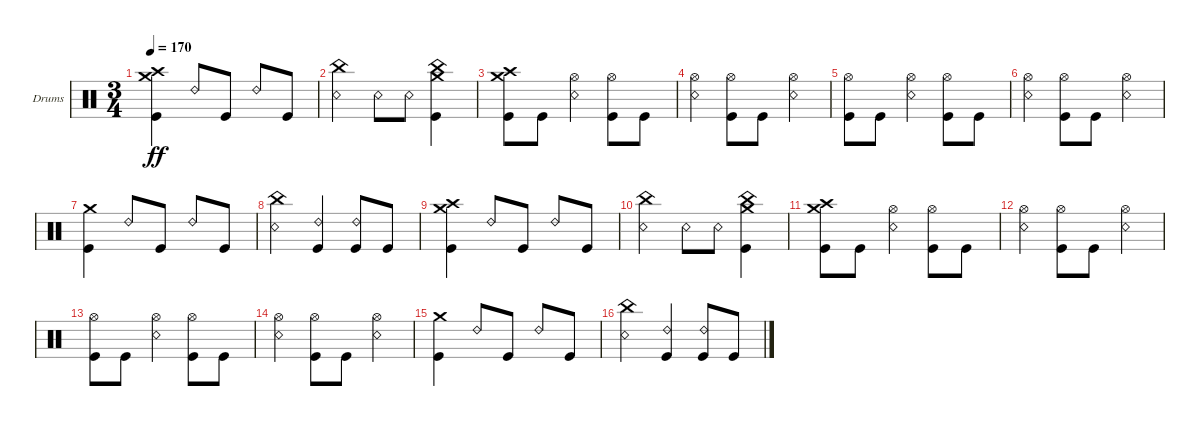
\bracketExtendMode groupsimilarinstruments
\firstSystemTrackNameOrientation horizontal
\otherSystemsTrackNameOrientation horizontal
\track ("Kaleb - Drums" "Drums") {instrument percussion}
\staff {score}
\articulation defaults
\ts (3 4)
\tempo 170
\clef neutral
\ks c
("Kick (hit)" "Crash medium (hit)" "Crash high (hit)").4{dy ff} "Ride (bell) 2".8 "Kick (hit)".8 "Ride (bell) 2".8 "Kick (hit)".8 |
("Snare (rim shot)" "China (hit)").4 "Snare (rim shot)".8 "Snare (rim shot)".8 ("Kick (hit)" "Crash medium (hit)" "China (hit)").4 |
("Kick (hit)" "Crash medium (hit)" "Crash high (hit)").8 "Kick (hit)".8 ("Hi-Hat (open)" "Snare (rim shot)").4 ("Kick (hit)" "Hi-Hat (open)").8 "Kick (hit)".8 |
("Hi-Hat (open)" "Snare (rim shot)").4 ("Kick (hit)" "Hi-Hat (open)").8 "Kick (hit)".8 ("Hi-Hat (open)" "Snare (rim shot)").4 |
("Kick (hit)" "Hi-Hat (open)").8 "Kick (hit)".8 ("Hi-Hat (open)" "Snare (rim shot)").4 ("Kick (hit)" "Hi-Hat (open)").8 "Kick (hit)".8 |
("Hi-Hat (open)" "Snare (rim shot)").4 ("Kick (hit)" "Hi-Hat (open)").8 "Kick (hit)".8 ("Hi-Hat (open)" "Snare (rim shot)").4 |
("Kick (hit)" "Crash medium (hit)").4 "Ride (bell) 2".8 "Kick (hit)".8 "Ride (bell) 2".8 "Kick (hit)".8 |
("Snare (rim shot)" "China (hit)").4 ("Ride (bell) 2" "Kick (hit)").4 ("Ride (bell) 2" "Kick (hit)").8 "Kick (hit)".8 |
("Kick (hit)" "Crash medium (hit)" "Crash high (hit)").4 "Ride (bell) 2".8 "Kick (hit)".8 "Ride (bell) 2".8 "Kick (hit)".8 |
("Snare (rim shot)" "China (hit)").4 "Snare (rim shot)".8 "Snare (rim shot)".8 ("Kick (hit)" "Crash medium (hit)" "China (hit)").4 |
("Kick (hit)" "Crash medium (hit)" "Crash high (hit)").8 "Kick (hit)".8 ("Hi-Hat (open)" "Snare (rim shot)").4 ("Kick (hit)" "Hi-Hat (open)").8 "Kick (hit)".8 |
("Hi-Hat (open)" "Snare (rim shot)").4 ("Kick (hit)" "Hi-Hat (open)").8 "Kick (hit)".8 ("Hi-Hat (open)" "Snare (rim shot)").4 |
("Kick (hit)" "Hi-Hat (open)").8 "Kick (hit)".8 ("Hi-Hat (open)" "Snare (rim shot)").4 ("Kick (hit)" "Hi-Hat (open)").8 "Kick (hit)".8 |
("Hi-Hat (open)" "Snare (rim shot)").4 ("Kick (hit)" "Hi-Hat (open)").8 "Kick (hit)".8 ("Hi-Hat (open)" "Snare (rim shot)").4 |
("Kick (hit)" "Crash medium (hit)").4 "Ride (bell) 2".8 "Kick (hit)".8 "Ride (bell) 2".8 "Kick (hit)".8 |
("Snare (rim shot)" "China (hit)").4 ("Ride (bell) 2" "Kick (hit)").4 ("Ride (bell) 2" "Kick (hit)").8 "Kick (hit)".8
